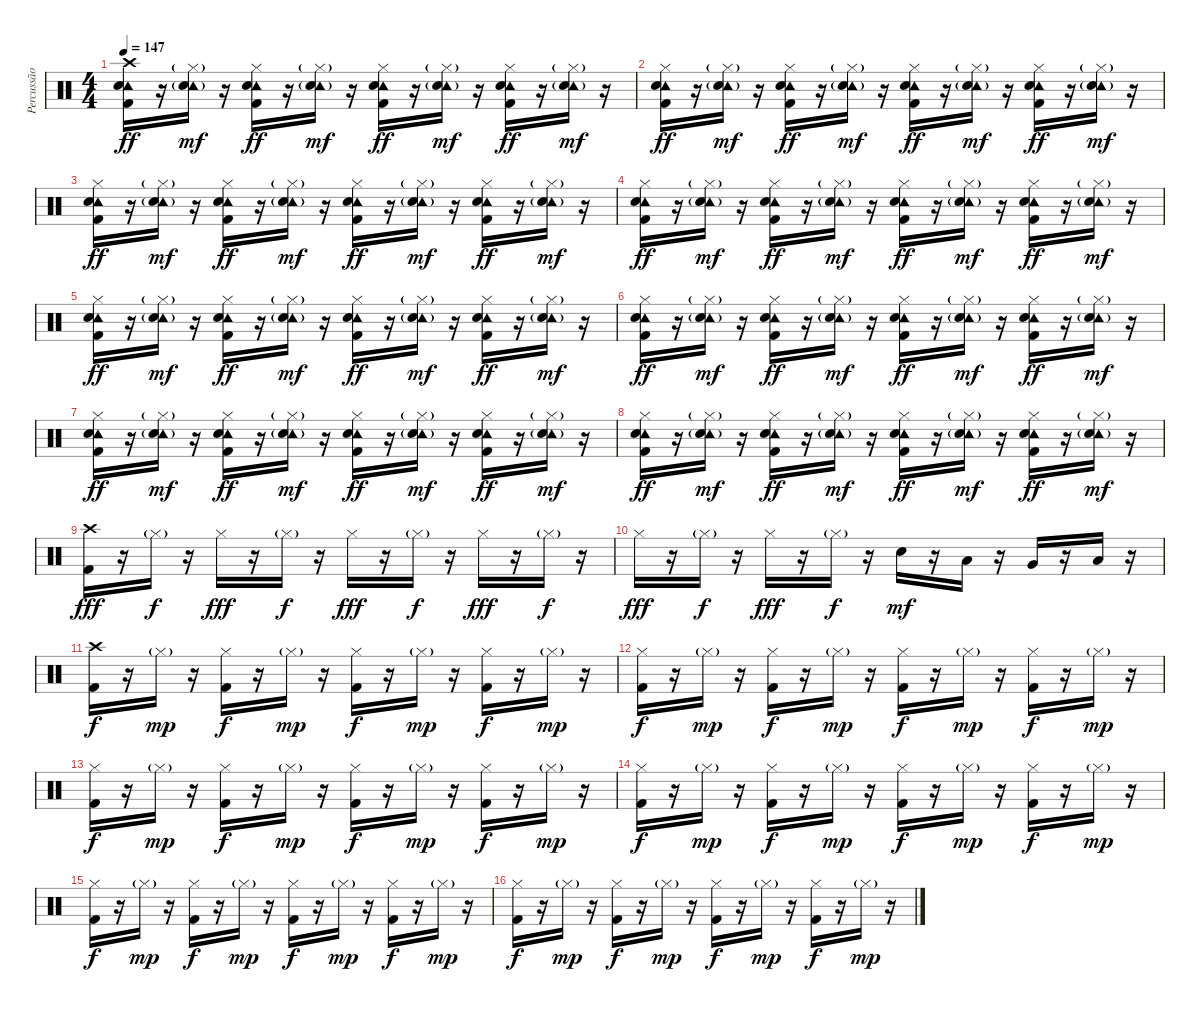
\track ("Percussão" "Percussão") {instrument percussion}
\staff {score}
\articulation defaults
\ts (4 4)
\tempo 147
\clef neutral
\ks c
("Crash high (hit)" "Tambourine (hit)" "Snare (hit) 2" "Kick (hit) 2").16{dy ff volume 13} r.16 ("Hi-Hat (closed)"{g} "Tambourine (hit)" "Snare (hit) 2"{g}).16{dy mf} r.16 ("Hi-Hat (closed)" "Tambourine (hit)" "Snare (hit) 2" "Kick (hit) 2").16{dy ff} r.16 ("Hi-Hat (closed)"{g} "Tambourine (hit)" "Snare (hit) 2"{g}).16{dy mf} r.16 ("Hi-Hat (closed)" "Tambourine (hit)" "Snare (hit) 2" "Kick (hit) 2").16{dy ff} r.16 ("Hi-Hat (closed)"{g} "Tambourine (hit)" "Snare (hit) 2"{g}).16{dy mf} r.16 ("Hi-Hat (closed)" "Tambourine (hit)" "Snare (hit) 2" "Kick (hit) 2").16{dy ff} r.16 ("Hi-Hat (closed)"{g} "Tambourine (hit)" "Snare (hit) 2"{g}).16{dy mf} r.16 |
("Hi-Hat (closed)" "Tambourine (hit)" "Snare (hit) 2" "Kick (hit) 2").16{dy ff} r.16 ("Hi-Hat (closed)"{g} "Tambourine (hit)" "Snare (hit) 2"{g}).16{dy mf} r.16 ("Hi-Hat (closed)" "Tambourine (hit)" "Snare (hit) 2" "Kick (hit) 2").16{dy ff} r.16 ("Hi-Hat (closed)"{g} "Tambourine (hit)" "Snare (hit) 2"{g}).16{dy mf} r.16 ("Hi-Hat (closed)" "Tambourine (hit)" "Snare (hit) 2" "Kick (hit) 2").16{dy ff} r.16 ("Hi-Hat (closed)"{g} "Tambourine (hit)" "Snare (hit) 2"{g}).16{dy mf} r.16 ("Hi-Hat (closed)" "Tambourine (hit)" "Snare (hit) 2" "Kick (hit) 2").16{dy ff} r.16 ("Hi-Hat (closed)"{g} "Tambourine (hit)" "Snare (hit) 2"{g}).16{dy mf} r.16 |
("Hi-Hat (closed)" "Tambourine (hit)" "Snare (hit) 2" "Kick (hit) 2").16{dy ff volume 13} r.16 ("Hi-Hat (closed)"{g} "Tambourine (hit)" "Snare (hit) 2"{g}).16{dy mf} r.16 ("Hi-Hat (closed)" "Tambourine (hit)" "Snare (hit) 2" "Kick (hit) 2").16{dy ff} r.16 ("Hi-Hat (closed)"{g} "Tambourine (hit)" "Snare (hit) 2"{g}).16{dy mf} r.16 ("Hi-Hat (closed)" "Tambourine (hit)" "Snare (hit) 2" "Kick (hit) 2").16{dy ff} r.16 ("Hi-Hat (closed)"{g} "Tambourine (hit)" "Snare (hit) 2"{g}).16{dy mf} r.16 ("Hi-Hat (closed)" "Tambourine (hit)" "Snare (hit) 2" "Kick (hit) 2").16{dy ff} r.16 ("Hi-Hat (closed)"{g} "Tambourine (hit)" "Snare (hit) 2"{g}).16{dy mf} r.16 |
("Hi-Hat (closed)" "Tambourine (hit)" "Snare (hit) 2" "Kick (hit) 2").16{dy ff} r.16 ("Hi-Hat (closed)"{g} "Tambourine (hit)" "Snare (hit) 2"{g}).16{dy mf} r.16 ("Hi-Hat (closed)" "Tambourine (hit)" "Snare (hit) 2" "Kick (hit) 2").16{dy ff} r.16 ("Hi-Hat (closed)"{g} "Tambourine (hit)" "Snare (hit) 2"{g}).16{dy mf} r.16 ("Hi-Hat (closed)" "Tambourine (hit)" "Snare (hit) 2" "Kick (hit) 2").16{dy ff} r.16 ("Hi-Hat (closed)"{g} "Tambourine (hit)" "Snare (hit) 2"{g}).16{dy mf} r.16 ("Hi-Hat (closed)" "Tambourine (hit)" "Snare (hit) 2" "Kick (hit) 2").16{dy ff} r.16 ("Hi-Hat (closed)"{g} "Tambourine (hit)" "Snare (hit) 2"{g}).16{dy mf} r.16 |
("Hi-Hat (closed)" "Tambourine (hit)" "Snare (hit) 2" "Kick (hit) 2").16{dy ff volume 13} r.16 ("Hi-Hat (closed)"{g} "Tambourine (hit)" "Snare (hit) 2"{g}).16{dy mf} r.16 ("Hi-Hat (closed)" "Tambourine (hit)" "Snare (hit) 2" "Kick (hit) 2").16{dy ff} r.16 ("Hi-Hat (closed)"{g} "Tambourine (hit)" "Snare (hit) 2"{g}).16{dy mf} r.16 ("Hi-Hat (closed)" "Tambourine (hit)" "Snare (hit) 2" "Kick (hit) 2").16{dy ff} r.16 ("Hi-Hat (closed)"{g} "Tambourine (hit)" "Snare (hit) 2"{g}).16{dy mf} r.16 ("Hi-Hat (closed)" "Tambourine (hit)" "Snare (hit) 2" "Kick (hit) 2").16{dy ff} r.16 ("Hi-Hat (closed)"{g} "Tambourine (hit)" "Snare (hit) 2"{g}).16{dy mf} r.16 |
("Hi-Hat (closed)" "Tambourine (hit)" "Snare (hit) 2" "Kick (hit) 2").16{dy ff} r.16 ("Hi-Hat (closed)"{g} "Tambourine (hit)" "Snare (hit) 2"{g}).16{dy mf} r.16 ("Hi-Hat (closed)" "Tambourine (hit)" "Snare (hit) 2" "Kick (hit) 2").16{dy ff} r.16 ("Hi-Hat (closed)"{g} "Tambourine (hit)" "Snare (hit) 2"{g}).16{dy mf} r.16 ("Hi-Hat (closed)" "Tambourine (hit)" "Snare (hit) 2" "Kick (hit) 2").16{dy ff} r.16 ("Hi-Hat (closed)"{g} "Tambourine (hit)" "Snare (hit) 2"{g}).16{dy mf} r.16 ("Hi-Hat (closed)" "Tambourine (hit)" "Snare (hit) 2" "Kick (hit) 2").16{dy ff} r.16 ("Hi-Hat (closed)"{g} "Tambourine (hit)" "Snare (hit) 2"{g}).16{dy mf} r.16 |
("Hi-Hat (closed)" "Tambourine (hit)" "Snare (hit) 2" "Kick (hit) 2").16{dy ff volume 13} r.16 ("Hi-Hat (closed)"{g} "Tambourine (hit)" "Snare (hit) 2"{g}).16{dy mf} r.16 ("Hi-Hat (closed)" "Tambourine (hit)" "Snare (hit) 2" "Kick (hit) 2").16{dy ff} r.16 ("Hi-Hat (closed)"{g} "Tambourine (hit)" "Snare (hit) 2"{g}).16{dy mf} r.16 ("Hi-Hat (closed)" "Tambourine (hit)" "Snare (hit) 2" "Kick (hit) 2").16{dy ff} r.16 ("Hi-Hat (closed)"{g} "Tambourine (hit)" "Snare (hit) 2"{g}).16{dy mf} r.16 ("Hi-Hat (closed)" "Tambourine (hit)" "Snare (hit) 2" "Kick (hit) 2").16{dy ff} r.16 ("Hi-Hat (closed)"{g} "Tambourine (hit)" "Snare (hit) 2"{g}).16{dy mf} r.16 |
("Hi-Hat (closed)" "Tambourine (hit)" "Snare (hit) 2" "Kick (hit) 2").16{dy ff} r.16 ("Hi-Hat (closed)"{g} "Tambourine (hit)" "Snare (hit) 2"{g}).16{dy mf} r.16 ("Hi-Hat (closed)" "Tambourine (hit)" "Snare (hit) 2" "Kick (hit) 2").16{dy ff} r.16 ("Hi-Hat (closed)"{g} "Tambourine (hit)" "Snare (hit) 2"{g}).16{dy mf} r.16 ("Hi-Hat (closed)" "Tambourine (hit)" "Snare (hit) 2" "Kick (hit) 2").16{dy ff} r.16 ("Hi-Hat (closed)"{g} "Tambourine (hit)" "Snare (hit) 2"{g}).16{dy mf} r.16 ("Hi-Hat (closed)" "Tambourine (hit)" "Snare (hit) 2" "Kick (hit) 2").16{dy ff} r.16 ("Hi-Hat (closed)"{g} "Tambourine (hit)" "Snare (hit) 2"{g}).16{dy mf} r.16 |
("Crash high (hit)" "Kick (hit) 2").16{dy fff volume 16} r.16 "Hi-Hat (closed)"{g}.16{dy f} r.16 "Hi-Hat (closed)".16{dy fff} r.16 "Hi-Hat (closed)"{g}.16{dy f} r.16 "Hi-Hat (closed)".16{dy fff} r.16 "Hi-Hat (closed)"{g}.16{dy f} r.16 "Hi-Hat (closed)".16{dy fff} r.16 "Hi-Hat (closed)"{g}.16{dy f} r.16 |
"Hi-Hat (closed)".16{dy fff} r.16 "Hi-Hat (closed)"{g}.16{dy f} r.16 "Hi-Hat (closed)".16{dy fff} r.16 "Hi-Hat (closed)"{g}.16{dy f} r.16 "Snare (hit) 2".16{dy mf} r.16 "Low Tom (hit)".16 r.16 "Very Low Tom (hit)".16 r.16 "Low Floor Tom (hit)".16 r.16 |
("Crash high (hit)" "Kick (hit) 2").16{dy f} r.16 "Hi-Hat (closed)"{g}.16{dy mp} r.16 ("Hi-Hat (closed)" "Kick (hit) 2").16{dy f} r.16 "Hi-Hat (closed)"{g}.16{dy mp} r.16 ("Hi-Hat (closed)" "Kick (hit) 2").16{dy f} r.16 "Hi-Hat (closed)"{g}.16{dy mp} r.16 ("Hi-Hat (closed)" "Kick (hit) 2").16{dy f} r.16 "Hi-Hat (closed)"{g}.16{dy mp} r.16 |
("Hi-Hat (closed)" "Kick (hit) 2").16{dy f} r.16 "Hi-Hat (closed)"{g}.16{dy mp} r.16 ("Hi-Hat (closed)" "Kick (hit) 2").16{dy f} r.16 "Hi-Hat (closed)"{g}.16{dy mp} r.16 ("Hi-Hat (closed)" "Kick (hit) 2").16{dy f} r.16 "Hi-Hat (closed)"{g}.16{dy mp} r.16 ("Hi-Hat (closed)" "Kick (hit) 2").16{dy f} r.16 "Hi-Hat (closed)"{g}.16{dy mp} r.16 |
("Hi-Hat (closed)" "Kick (hit) 2").16{dy f} r.16 "Hi-Hat (closed)"{g}.16{dy mp} r.16 ("Hi-Hat (closed)" "Kick (hit) 2").16{dy f} r.16 "Hi-Hat (closed)"{g}.16{dy mp} r.16 ("Hi-Hat (closed)" "Kick (hit) 2").16{dy f} r.16 "Hi-Hat (closed)"{g}.16{dy mp} r.16 ("Hi-Hat (closed)" "Kick (hit) 2").16{dy f} r.16 "Hi-Hat (closed)"{g}.16{dy mp} r.16 |
("Hi-Hat (closed)" "Kick (hit) 2").16{dy f} r.16 "Hi-Hat (closed)"{g}.16{dy mp} r.16 ("Hi-Hat (closed)" "Kick (hit) 2").16{dy f} r.16 "Hi-Hat (closed)"{g}.16{dy mp} r.16 ("Hi-Hat (closed)" "Kick (hit) 2").16{dy f} r.16 "Hi-Hat (closed)"{g}.16{dy mp} r.16 ("Hi-Hat (closed)" "Kick (hit) 2").16{dy f} r.16 "Hi-Hat (closed)"{g}.16{dy mp} r.16 |
("Hi-Hat (closed)" "Kick (hit) 2").16{dy f} r.16 "Hi-Hat (closed)"{g}.16{dy mp} r.16 ("Hi-Hat (closed)" "Kick (hit) 2").16{dy f} r.16 "Hi-Hat (closed)"{g}.16{dy mp} r.16 ("Hi-Hat (closed)" "Kick (hit) 2").16{dy f} r.16 "Hi-Hat (closed)"{g}.16{dy mp} r.16 ("Hi-Hat (closed)" "Kick (hit) 2").16{dy f} r.16 "Hi-Hat (closed)"{g}.16{dy mp} r.16 |
("Hi-Hat (closed)" "Kick (hit) 2").16{dy f} r.16 "Hi-Hat (closed)"{g}.16{dy mp} r.16 ("Hi-Hat (closed)" "Kick (hit) 2").16{dy f} r.16 "Hi-Hat (closed)"{g}.16{dy mp} r.16 ("Hi-Hat (closed)" "Kick (hit) 2").16{dy f} r.16 "Hi-Hat (closed)"{g}.16{dy mp} r.16 ("Hi-Hat (closed)" "Kick (hit) 2").16{dy f} r.16 "Hi-Hat (closed)"{g}.16{dy mp} r.16
